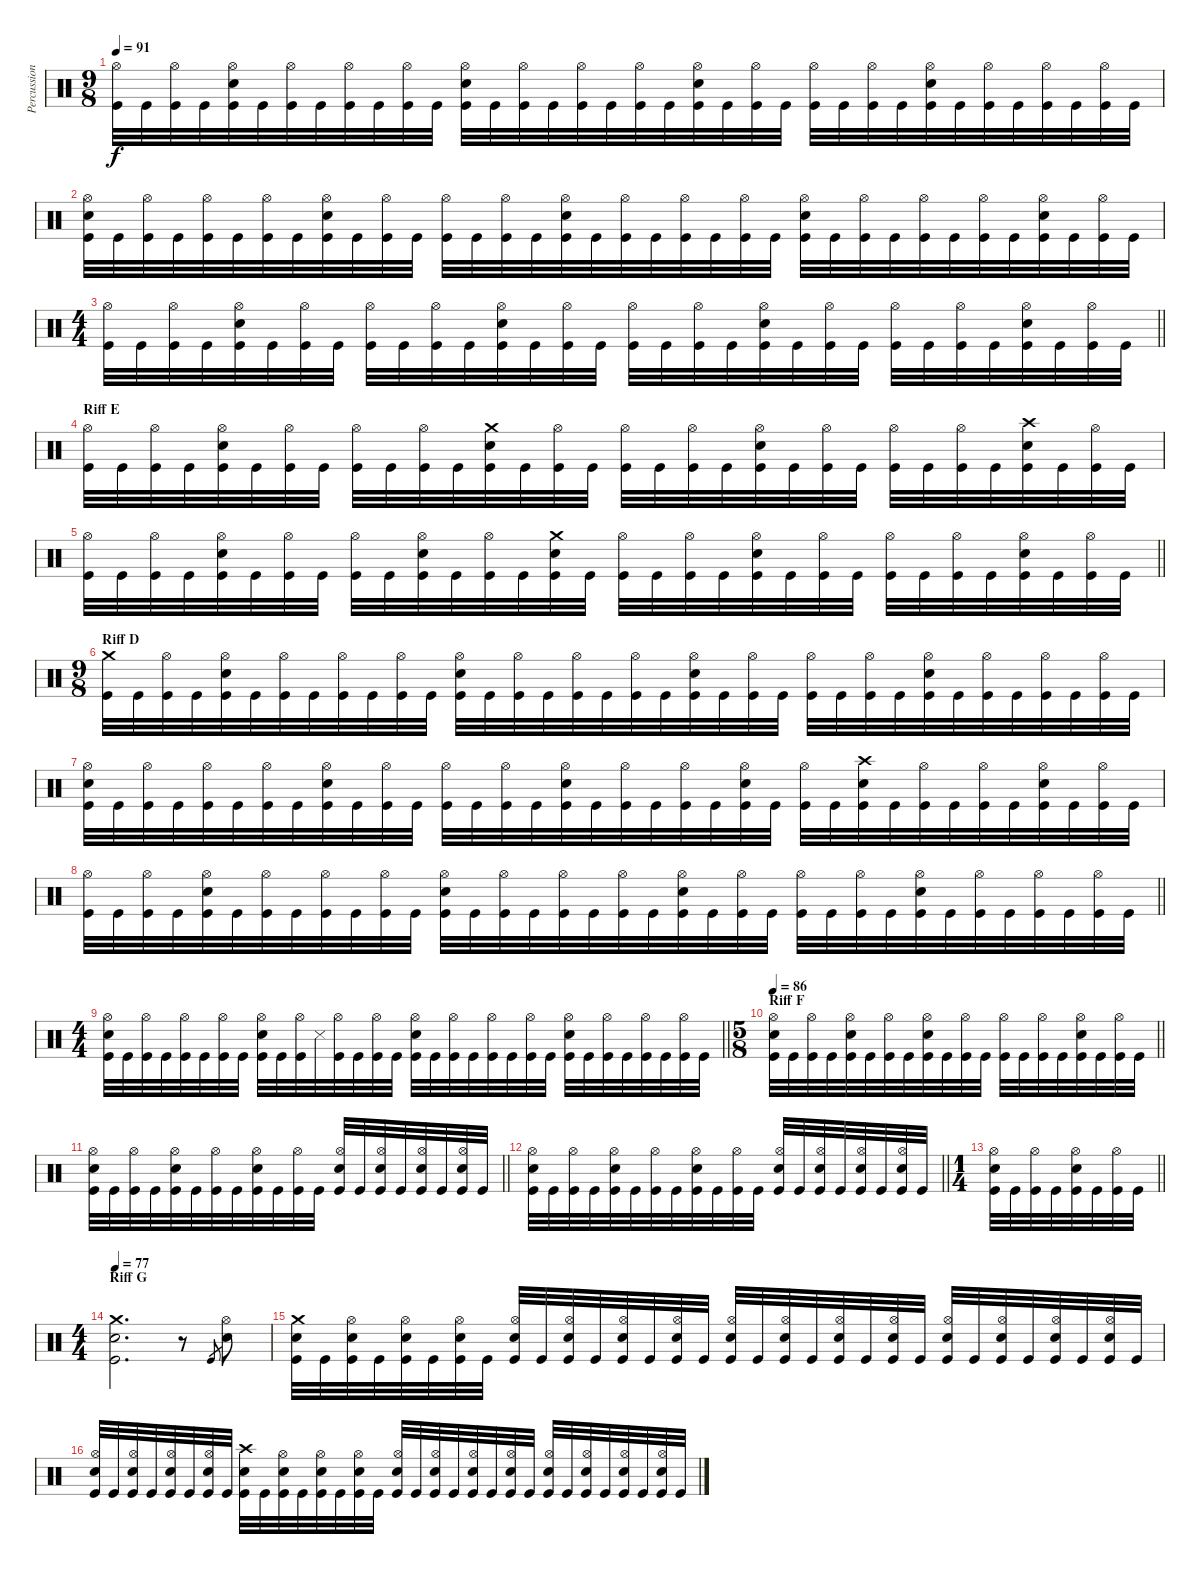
\track ("Percussion" "Percussion") {instrument percussion}
\staff {score}
\articulation defaults
\ts (9 8)
\tempo 91
\clef neutral
\ks c
("Kick (hit)" "Hi-Hat (open)").32{dy f} "Kick (hit)".32 ("Kick (hit)" "Hi-Hat (open)").32 "Kick (hit)".32 ("Kick (hit)" "Hi-Hat (open)" "Snare (hit) 2").32 "Kick (hit)".32 ("Kick (hit)" "Hi-Hat (open)").32 "Kick (hit)".32 ("Kick (hit)" "Hi-Hat (open)").32 "Kick (hit)".32 ("Kick (hit)" "Hi-Hat (open)").32 "Kick (hit)".32 ("Kick (hit)" "Hi-Hat (open)" "Snare (hit) 2").32 "Kick (hit)".32 ("Kick (hit)" "Hi-Hat (open)").32 "Kick (hit)".32 ("Kick (hit)" "Hi-Hat (open)").32 "Kick (hit)".32 ("Kick (hit)" "Hi-Hat (open)").32 "Kick (hit)".32 ("Kick (hit)" "Hi-Hat (open)" "Snare (hit) 2").32 "Kick (hit)".32 ("Kick (hit)" "Hi-Hat (open)").32 "Kick (hit)".32 ("Kick (hit)" "Hi-Hat (open)").32 "Kick (hit)".32 ("Kick (hit)" "Hi-Hat (open)").32 "Kick (hit)".32 ("Kick (hit)" "Hi-Hat (open)" "Snare (hit) 2").32 "Kick (hit)".32 ("Kick (hit)" "Hi-Hat (open)").32 "Kick (hit)".32 ("Kick (hit)" "Hi-Hat (open)").32 "Kick (hit)".32 ("Kick (hit)" "Hi-Hat (open)").32 "Kick (hit)".32 |
("Kick (hit)" "Hi-Hat (open)" "Snare (hit) 2").32 "Kick (hit)".32 ("Kick (hit)" "Hi-Hat (open)").32 "Kick (hit)".32 ("Kick (hit)" "Hi-Hat (open)").32 "Kick (hit)".32 ("Kick (hit)" "Hi-Hat (open)").32 "Kick (hit)".32 ("Kick (hit)" "Hi-Hat (open)" "Snare (hit) 2").32 "Kick (hit)".32 ("Kick (hit)" "Hi-Hat (open)").32 "Kick (hit)".32 ("Kick (hit)" "Hi-Hat (open)").32 "Kick (hit)".32 ("Kick (hit)" "Hi-Hat (open)").32 "Kick (hit)".32 ("Kick (hit)" "Hi-Hat (open)" "Snare (hit) 2").32 "Kick (hit)".32 ("Kick (hit)" "Hi-Hat (open)").32 "Kick (hit)".32 ("Kick (hit)" "Hi-Hat (open)").32 "Kick (hit)".32 ("Kick (hit)" "Hi-Hat (open)").32 "Kick (hit)".32 ("Kick (hit)" "Hi-Hat (open)" "Snare (hit) 2").32 "Kick (hit)".32 ("Kick (hit)" "Hi-Hat (open)").32 "Kick (hit)".32 ("Kick (hit)" "Hi-Hat (open)").32 "Kick (hit)".32 ("Kick (hit)" "Hi-Hat (open)").32 "Kick (hit)".32 ("Kick (hit)" "Hi-Hat (open)" "Snare (hit) 2").32 "Kick (hit)".32 ("Kick (hit)" "Hi-Hat (open)").32 "Kick (hit)".32 |
\ts (4 4)
\barLineRight lightlight
("Kick (hit)" "Hi-Hat (open)").32 "Kick (hit)".32 ("Kick (hit)" "Hi-Hat (open)").32 "Kick (hit)".32 ("Kick (hit)" "Hi-Hat (open)" "Snare (hit) 2").32 "Kick (hit)".32 ("Kick (hit)" "Hi-Hat (open)").32 "Kick (hit)".32 ("Kick (hit)" "Hi-Hat (open)").32 "Kick (hit)".32 ("Kick (hit)" "Hi-Hat (open)").32 "Kick (hit)".32 ("Kick (hit)" "Hi-Hat (open)" "Snare (hit) 2").32 "Kick (hit)".32 ("Kick (hit)" "Hi-Hat (open)").32 "Kick (hit)".32 ("Kick (hit)" "Hi-Hat (open)").32 "Kick (hit)".32 ("Kick (hit)" "Hi-Hat (open)").32 "Kick (hit)".32 ("Kick (hit)" "Hi-Hat (open)" "Snare (hit) 2").32 "Kick (hit)".32 ("Kick (hit)" "Hi-Hat (open)").32 "Kick (hit)".32 ("Kick (hit)" "Hi-Hat (open)").32 "Kick (hit)".32 ("Kick (hit)" "Hi-Hat (open)").32 "Kick (hit)".32 ("Kick (hit)" "Hi-Hat (open)" "Snare (hit) 2").32 "Kick (hit)".32 ("Kick (hit)" "Hi-Hat (open)").32 "Kick (hit)".32 |
\section ("" "Riff E")
("Kick (hit)" "Hi-Hat (open)").32 "Kick (hit)".32 ("Kick (hit)" "Hi-Hat (open)").32 "Kick (hit)".32 ("Kick (hit)" "Hi-Hat (open)" "Snare (hit) 2").32 "Kick (hit)".32 ("Kick (hit)" "Hi-Hat (open)").32 "Kick (hit)".32 ("Kick (hit)" "Hi-Hat (open)").32 "Kick (hit)".32 ("Kick (hit)" "Hi-Hat (open)").32 "Kick (hit)".32 ("Kick (hit)" "Crash medium (hit)" "Snare (hit) 2").32 "Kick (hit)".32 ("Kick (hit)" "Hi-Hat (open)").32 "Kick (hit)".32 ("Kick (hit)" "Hi-Hat (open)").32 "Kick (hit)".32 ("Kick (hit)" "Hi-Hat (open)").32 "Kick (hit)".32 ("Kick (hit)" "Hi-Hat (open)" "Snare (hit) 2").32 "Kick (hit)".32 ("Kick (hit)" "Hi-Hat (open)").32 "Kick (hit)".32 ("Kick (hit)" "Hi-Hat (open)").32 "Kick (hit)".32 ("Kick (hit)" "Hi-Hat (open)").32 "Kick (hit)".32 ("Kick (hit)" "Crash high (hit)" "Snare (hit) 2").32 "Kick (hit)".32 ("Kick (hit)" "Hi-Hat (open)").32 "Kick (hit)".32 |
\barLineRight lightlight
("Kick (hit)" "Hi-Hat (open)").32 "Kick (hit)".32 ("Kick (hit)" "Hi-Hat (open)").32 "Kick (hit)".32 ("Kick (hit)" "Hi-Hat (open)" "Snare (hit) 2").32 "Kick (hit)".32 ("Kick (hit)" "Hi-Hat (open)").32 "Kick (hit)".32 ("Kick (hit)" "Hi-Hat (open)").32 "Kick (hit)".32 ("Kick (hit)" "Hi-Hat (open)" "Snare (hit) 2").32 "Kick (hit)".32 ("Kick (hit)" "Hi-Hat (open)").32 "Kick (hit)".32 ("Kick (hit)" "Crash medium (hit)" "Snare (hit) 2").32 "Kick (hit)".32 ("Kick (hit)" "Hi-Hat (open)").32 "Kick (hit)".32 ("Kick (hit)" "Hi-Hat (open)").32 "Kick (hit)".32 ("Kick (hit)" "Hi-Hat (open)" "Snare (hit) 2").32 "Kick (hit)".32 ("Kick (hit)" "Hi-Hat (open)").32 "Kick (hit)".32 ("Kick (hit)" "Hi-Hat (open)").32 "Kick (hit)".32 ("Kick (hit)" "Hi-Hat (open)").32 "Kick (hit)".32 ("Kick (hit)" "Hi-Hat (open)" "Snare (hit) 2").32 "Kick (hit)".32 ("Kick (hit)" "Hi-Hat (open)").32 "Kick (hit)".32 |
\ts (9 8)
\section ("" "Riff D")
("Kick (hit)" "Crash medium (hit)").32 "Kick (hit)".32 ("Kick (hit)" "Hi-Hat (open)").32 "Kick (hit)".32 ("Kick (hit)" "Hi-Hat (open)" "Snare (hit) 2").32 "Kick (hit)".32 ("Kick (hit)" "Hi-Hat (open)").32 "Kick (hit)".32 ("Kick (hit)" "Hi-Hat (open)").32 "Kick (hit)".32 ("Kick (hit)" "Hi-Hat (open)").32 "Kick (hit)".32 ("Kick (hit)" "Hi-Hat (open)" "Snare (hit) 2").32 "Kick (hit)".32 ("Kick (hit)" "Hi-Hat (open)").32 "Kick (hit)".32 ("Kick (hit)" "Hi-Hat (open)").32 "Kick (hit)".32 ("Kick (hit)" "Hi-Hat (open)").32 "Kick (hit)".32 ("Kick (hit)" "Hi-Hat (open)" "Snare (hit) 2").32 "Kick (hit)".32 ("Kick (hit)" "Hi-Hat (open)").32 "Kick (hit)".32 ("Kick (hit)" "Hi-Hat (open)").32 "Kick (hit)".32 ("Kick (hit)" "Hi-Hat (open)").32 "Kick (hit)".32 ("Kick (hit)" "Hi-Hat (open)" "Snare (hit) 2").32 "Kick (hit)".32 ("Kick (hit)" "Hi-Hat (open)").32 "Kick (hit)".32 ("Kick (hit)" "Hi-Hat (open)").32 "Kick (hit)".32 ("Kick (hit)" "Hi-Hat (open)").32 "Kick (hit)".32 |
("Kick (hit)" "Hi-Hat (open)" "Snare (hit) 2").32 "Kick (hit)".32 ("Kick (hit)" "Hi-Hat (open)").32 "Kick (hit)".32 ("Kick (hit)" "Hi-Hat (open)").32 "Kick (hit)".32 ("Kick (hit)" "Hi-Hat (open)").32 "Kick (hit)".32 ("Kick (hit)" "Hi-Hat (open)" "Snare (hit) 2").32 "Kick (hit)".32 ("Kick (hit)" "Hi-Hat (open)").32 "Kick (hit)".32 ("Kick (hit)" "Hi-Hat (open)").32 "Kick (hit)".32 ("Kick (hit)" "Hi-Hat (open)").32 "Kick (hit)".32 ("Kick (hit)" "Hi-Hat (open)" "Snare (hit) 2").32 "Kick (hit)".32 ("Kick (hit)" "Hi-Hat (open)").32 "Kick (hit)".32 ("Kick (hit)" "Hi-Hat (open)").32 "Kick (hit)".32 ("Kick (hit)" "Hi-Hat (open)" "Snare (hit) 2").32 "Kick (hit)".32 ("Kick (hit)" "Hi-Hat (open)").32 "Kick (hit)".32 ("Kick (hit)" "Crash high (hit)" "Snare (hit) 2").32 "Kick (hit)".32 ("Kick (hit)" "Hi-Hat (open)").32 "Kick (hit)".32 ("Kick (hit)" "Hi-Hat (open)").32 "Kick (hit)".32 ("Kick (hit)" "Hi-Hat (open)" "Snare (hit) 2").32 "Kick (hit)".32 ("Kick (hit)" "Hi-Hat (open)").32 "Kick (hit)".32 |
\barLineRight lightlight
("Kick (hit)" "Hi-Hat (open)").32 "Kick (hit)".32 ("Kick (hit)" "Hi-Hat (open)").32 "Kick (hit)".32 ("Kick (hit)" "Hi-Hat (open)" "Snare (hit) 2").32 "Kick (hit)".32 ("Kick (hit)" "Hi-Hat (open)").32 "Kick (hit)".32 ("Kick (hit)" "Hi-Hat (open)").32 "Kick (hit)".32 ("Kick (hit)" "Hi-Hat (open)").32 "Kick (hit)".32 ("Kick (hit)" "Hi-Hat (open)" "Snare (hit) 2").32 "Kick (hit)".32 ("Kick (hit)" "Hi-Hat (open)").32 "Kick (hit)".32 ("Kick (hit)" "Hi-Hat (open)").32 "Kick (hit)".32 ("Kick (hit)" "Hi-Hat (open)").32 "Kick (hit)".32 ("Kick (hit)" "Hi-Hat (open)" "Snare (hit) 2").32 "Kick (hit)".32 ("Kick (hit)" "Hi-Hat (open)").32 "Kick (hit)".32 ("Kick (hit)" "Hi-Hat (open)").32 "Kick (hit)".32 ("Kick (hit)" "Hi-Hat (open)").32 "Kick (hit)".32 ("Kick (hit)" "Hi-Hat (open)" "Snare (hit) 2").32 "Kick (hit)".32 ("Kick (hit)" "Hi-Hat (open)").32 "Kick (hit)".32 ("Kick (hit)" "Hi-Hat (open)").32 "Kick (hit)".32 ("Kick (hit)" "Hi-Hat (open)").32 "Kick (hit)".32 |
\ts (4 4)
\barLineRight lightlight
("Kick (hit)" "Hi-Hat (open)" "Snare (hit) 2").32 "Kick (hit)".32 ("Kick (hit)" "Hi-Hat (open)").32 "Kick (hit)".32 ("Kick (hit)" "Hi-Hat (open)").32 "Kick (hit)".32 ("Kick (hit)" "Hi-Hat (open)").32 "Kick (hit)".32 ("Kick (hit)" "Hi-Hat (open)" "Snare (hit) 2").32 "Kick (hit)".32 ("Kick (hit)" "Hi-Hat (open)").32 "Snare (side stick) 3".32 ("Kick (hit)" "Hi-Hat (open)").32 "Kick (hit)".32 ("Kick (hit)" "Hi-Hat (open)").32 "Kick (hit)".32 ("Kick (hit)" "Hi-Hat (open)" "Snare (hit) 2").32 "Kick (hit)".32 ("Kick (hit)" "Hi-Hat (open)").32 "Kick (hit)".32 ("Kick (hit)" "Hi-Hat (open)").32 "Kick (hit)".32 ("Kick (hit)" "Hi-Hat (open)").32 "Kick (hit)".32 ("Kick (hit)" "Hi-Hat (open)" "Snare (hit) 2").32 "Kick (hit)".32 ("Kick (hit)" "Hi-Hat (open)").32 "Kick (hit)".32 ("Kick (hit)" "Hi-Hat (open)").32 "Kick (hit)".32 ("Kick (hit)" "Hi-Hat (open)").32 "Kick (hit)".32 |
\ts (5 8)
\section ("" "Riff F")
\tempo 86
\barLineRight lightlight
("Kick (hit)" "Hi-Hat (open)" "Snare (hit) 2").32 "Kick (hit)".32 ("Kick (hit)" "Hi-Hat (open)").32 "Kick (hit)".32 ("Kick (hit)" "Hi-Hat (open)" "Snare (hit) 2").32 "Kick (hit)".32 ("Kick (hit)" "Hi-Hat (open)").32 "Kick (hit)".32 ("Kick (hit)" "Hi-Hat (open)" "Snare (hit) 2").32 "Kick (hit)".32 ("Kick (hit)" "Hi-Hat (open)").32 "Kick (hit)".32 ("Kick (hit)" "Hi-Hat (open)").32 "Kick (hit)".32 ("Kick (hit)" "Hi-Hat (open)").32 "Kick (hit)".32 ("Kick (hit)" "Hi-Hat (open)" "Snare (hit) 2").32 "Kick (hit)".32 ("Kick (hit)" "Hi-Hat (open)").32 "Kick (hit)".32 |
\barLineRight lightlight
("Kick (hit)" "Hi-Hat (open)" "Snare (hit) 2").32 "Kick (hit)".32 ("Kick (hit)" "Hi-Hat (open)").32 "Kick (hit)".32 ("Kick (hit)" "Hi-Hat (open)" "Snare (hit) 2").32 "Kick (hit)".32 ("Kick (hit)" "Hi-Hat (open)").32 "Kick (hit)".32 ("Kick (hit)" "Hi-Hat (open)" "Snare (hit) 2").32 "Kick (hit)".32 ("Kick (hit)" "Hi-Hat (open)").32 "Kick (hit)".32 ("Kick (hit)" "Hi-Hat (open)" "Snare (hit) 2").32 "Kick (hit)".32 ("Kick (hit)" "Hi-Hat (open)" "Snare (hit) 2").32 "Kick (hit)".32 ("Kick (hit)" "Hi-Hat (open)" "Snare (hit) 2").32 "Kick (hit)".32 ("Kick (hit)" "Hi-Hat (open)" "Snare (hit) 2").32 "Kick (hit)".32 |
\barLineRight lightlight
("Kick (hit)" "Hi-Hat (open)" "Snare (hit) 2").32 "Kick (hit)".32 ("Kick (hit)" "Hi-Hat (open)").32 "Kick (hit)".32 ("Kick (hit)" "Hi-Hat (open)" "Snare (hit) 2").32 "Kick (hit)".32 ("Kick (hit)" "Hi-Hat (open)").32 "Kick (hit)".32 ("Kick (hit)" "Hi-Hat (open)" "Snare (hit) 2").32 "Kick (hit)".32 ("Kick (hit)" "Hi-Hat (open)").32 "Kick (hit)".32 ("Kick (hit)" "Hi-Hat (open)" "Snare (hit) 2").32 "Kick (hit)".32 ("Kick (hit)" "Hi-Hat (open)" "Snare (hit) 2").32 "Kick (hit)".32 ("Kick (hit)" "Hi-Hat (open)" "Snare (hit) 2").32 "Kick (hit)".32 ("Kick (hit)" "Hi-Hat (open)" "Snare (hit) 2").32 "Kick (hit)".32 |
\ts (1 4)
\barLineRight lightlight
("Kick (hit)" "Hi-Hat (open)" "Snare (hit) 2").32 "Kick (hit)".32 ("Kick (hit)" "Hi-Hat (open)").32 "Kick (hit)".32 ("Kick (hit)" "Hi-Hat (open)" "Snare (hit) 2").32 "Kick (hit)".32 ("Kick (hit)" "Hi-Hat (open)").32 "Kick (hit)".32 |
\ts (4 4)
\section ("" "Riff G")
\tempo 77
("Kick (hit)" "Crash medium (hit)" "Snare (hit) 2").2{d} r.8 "Kick (hit)".8{gr} ("Hi-Hat (open)" "Snare (hit) 2").8 |
("Kick (hit)" "Snare (hit) 2" "Crash medium (hit)").32 "Kick (hit)".32 ("Kick (hit)" "Snare (hit) 2" "Hi-Hat (open)").32 "Kick (hit)".32 ("Kick (hit)" "Snare (hit) 2" "Hi-Hat (open)").32 "Kick (hit)".32 ("Kick (hit)" "Snare (hit) 2" "Hi-Hat (open)").32 "Kick (hit)".32 ("Kick (hit)" "Snare (hit) 2" "Hi-Hat (open)").32 "Kick (hit)".32 ("Kick (hit)" "Snare (hit) 2" "Hi-Hat (open)").32 "Kick (hit)".32 ("Kick (hit)" "Snare (hit) 2" "Hi-Hat (open)").32 "Kick (hit)".32 ("Kick (hit)" "Snare (hit) 2" "Hi-Hat (open)").32 "Kick (hit)".32 ("Kick (hit)" "Snare (hit) 2" "Hi-Hat (open)").32 "Kick (hit)".32 ("Kick (hit)" "Snare (hit) 2" "Hi-Hat (open)").32 "Kick (hit)".32 ("Kick (hit)" "Snare (hit) 2" "Hi-Hat (open)").32 "Kick (hit)".32 ("Kick (hit)" "Snare (hit) 2" "Hi-Hat (open)").32 "Kick (hit)".32 ("Kick (hit)" "Snare (hit) 2" "Hi-Hat (open)").32 "Kick (hit)".32 ("Kick (hit)" "Snare (hit) 2" "Hi-Hat (open)").32 "Kick (hit)".32 ("Kick (hit)" "Snare (hit) 2" "Hi-Hat (open)").32 "Kick (hit)".32 ("Kick (hit)" "Snare (hit) 2" "Hi-Hat (open)").32 "Kick (hit)".32 |
("Kick (hit)" "Snare (hit) 2" "Hi-Hat (open)").32 "Kick (hit)".32 ("Kick (hit)" "Snare (hit) 2" "Hi-Hat (open)").32 "Kick (hit)".32 ("Kick (hit)" "Snare (hit) 2" "Hi-Hat (open)").32 "Kick (hit)".32 ("Kick (hit)" "Snare (hit) 2" "Hi-Hat (open)").32 "Kick (hit)".32 ("Kick (hit)" "Snare (hit) 2" "Crash high (hit)").32 "Kick (hit)".32 ("Kick (hit)" "Snare (hit) 2" "Hi-Hat (open)").32 "Kick (hit)".32 ("Kick (hit)" "Snare (hit) 2" "Hi-Hat (open)").32 "Kick (hit)".32 ("Kick (hit)" "Snare (hit) 2" "Hi-Hat (open)").32 "Kick (hit)".32 ("Kick (hit)" "Snare (hit) 2" "Hi-Hat (open)").32 "Kick (hit)".32 ("Kick (hit)" "Snare (hit) 2" "Hi-Hat (open)").32 "Kick (hit)".32 ("Kick (hit)" "Snare (hit) 2" "Hi-Hat (open)").32 "Kick (hit)".32 ("Kick (hit)" "Snare (hit) 2" "Hi-Hat (open)").32 "Kick (hit)".32 ("Kick (hit)" "Snare (hit) 2" "Hi-Hat (open)").32 "Kick (hit)".32 ("Kick (hit)" "Snare (hit) 2" "Hi-Hat (open)").32 "Kick (hit)".32 ("Kick (hit)" "Snare (hit) 2" "Hi-Hat (open)").32 "Kick (hit)".32 ("Kick (hit)" "Snare (hit) 2" "Hi-Hat (open)").32 "Kick (hit)".32
